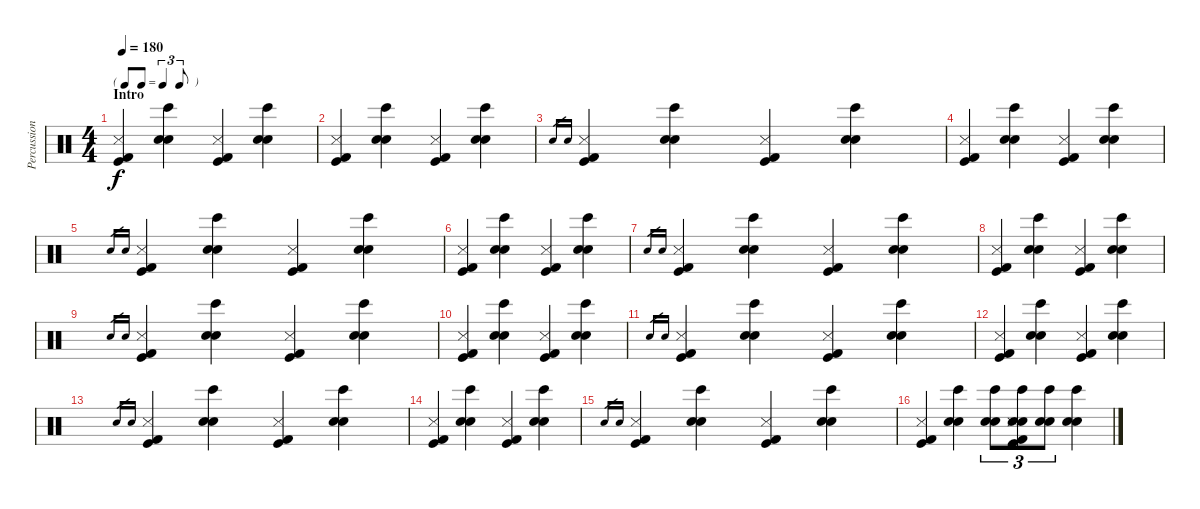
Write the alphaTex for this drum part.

\track ("Percussion" "Percussion") {instrument percussion}
\staff {score}
\articulation defaults
\ts (4 4)
\tf triplet8th
\section ("" "Intro")
\tempo 180
\clef neutral
\ks c
("Snare (side stick) 3" "Kick (hit)" "Kick (hit) 2").4{dy f} ("Bongo High (hit)" "Electric Snare (hit)" "Snare (hit) 2").4 ("Snare (side stick) 3" "Kick (hit)" "Kick (hit) 2").4 ("Bongo High (hit)" "Electric Snare (hit)" "Snare (hit) 2").4 |
("Snare (side stick) 3" "Kick (hit)" "Kick (hit) 2").4 ("Bongo High (hit)" "Electric Snare (hit)" "Snare (hit) 2").4 ("Snare (side stick) 3" "Kick (hit)" "Kick (hit) 2").4 ("Bongo High (hit)" "Electric Snare (hit)" "Snare (hit) 2").4 |
"Electric Snare (hit)".16{gr} "Snare (hit) 2".16{gr} ("Snare (side stick) 3" "Kick (hit)" "Kick (hit) 2").4 ("Bongo High (hit)" "Electric Snare (hit)" "Snare (hit) 2").4 ("Snare (side stick) 3" "Kick (hit)" "Kick (hit) 2").4 ("Bongo High (hit)" "Electric Snare (hit)" "Snare (hit) 2").4 |
("Snare (side stick) 3" "Kick (hit)" "Kick (hit) 2").4 ("Bongo High (hit)" "Electric Snare (hit)" "Snare (hit) 2").4 ("Snare (side stick) 3" "Kick (hit)" "Kick (hit) 2").4 ("Bongo High (hit)" "Electric Snare (hit)" "Snare (hit) 2").4 |
"Electric Snare (hit)".16{gr} "Snare (hit) 2".16{gr} ("Snare (side stick) 3" "Kick (hit)" "Kick (hit) 2").4 ("Bongo High (hit)" "Electric Snare (hit)" "Snare (hit) 2").4 ("Snare (side stick) 3" "Kick (hit)" "Kick (hit) 2").4 ("Bongo High (hit)" "Electric Snare (hit)" "Snare (hit) 2").4 |
("Snare (side stick) 3" "Kick (hit)" "Kick (hit) 2").4 ("Bongo High (hit)" "Electric Snare (hit)" "Snare (hit) 2").4 ("Snare (side stick) 3" "Kick (hit)" "Kick (hit) 2").4 ("Bongo High (hit)" "Electric Snare (hit)" "Snare (hit) 2").4 |
"Electric Snare (hit)".16{gr} "Snare (hit) 2".16{gr} ("Snare (side stick) 3" "Kick (hit)" "Kick (hit) 2").4 ("Bongo High (hit)" "Electric Snare (hit)" "Snare (hit) 2").4 ("Snare (side stick) 3" "Kick (hit)" "Kick (hit) 2").4 ("Bongo High (hit)" "Electric Snare (hit)" "Snare (hit) 2").4 |
("Snare (side stick) 3" "Kick (hit)" "Kick (hit) 2").4 ("Bongo High (hit)" "Electric Snare (hit)" "Snare (hit) 2").4 ("Snare (side stick) 3" "Kick (hit)" "Kick (hit) 2").4 ("Bongo High (hit)" "Electric Snare (hit)" "Snare (hit) 2").4 |
"Electric Snare (hit)".16{gr} "Snare (hit) 2".16{gr} ("Snare (side stick) 3" "Kick (hit)" "Kick (hit) 2").4 ("Bongo High (hit)" "Electric Snare (hit)" "Snare (hit) 2").4 ("Snare (side stick) 3" "Kick (hit)" "Kick (hit) 2").4 ("Bongo High (hit)" "Electric Snare (hit)" "Snare (hit) 2").4 |
("Snare (side stick) 3" "Kick (hit)" "Kick (hit) 2").4 ("Bongo High (hit)" "Electric Snare (hit)" "Snare (hit) 2").4 ("Snare (side stick) 3" "Kick (hit)" "Kick (hit) 2").4 ("Bongo High (hit)" "Electric Snare (hit)" "Snare (hit) 2").4 |
"Electric Snare (hit)".16{gr} "Snare (hit) 2".16{gr} ("Snare (side stick) 3" "Kick (hit)" "Kick (hit) 2").4 ("Bongo High (hit)" "Electric Snare (hit)" "Snare (hit) 2").4 ("Snare (side stick) 3" "Kick (hit)" "Kick (hit) 2").4 ("Bongo High (hit)" "Electric Snare (hit)" "Snare (hit) 2").4 |
("Snare (side stick) 3" "Kick (hit)" "Kick (hit) 2").4 ("Bongo High (hit)" "Electric Snare (hit)" "Snare (hit) 2").4 ("Snare (side stick) 3" "Kick (hit)" "Kick (hit) 2").4 ("Bongo High (hit)" "Electric Snare (hit)" "Snare (hit) 2").4 |
"Electric Snare (hit)".16{gr} "Snare (hit) 2".16{gr} ("Snare (side stick) 3" "Kick (hit)" "Kick (hit) 2").4 ("Bongo High (hit)" "Electric Snare (hit)" "Snare (hit) 2").4 ("Snare (side stick) 3" "Kick (hit)" "Kick (hit) 2").4 ("Bongo High (hit)" "Electric Snare (hit)" "Snare (hit) 2").4 |
("Snare (side stick) 3" "Kick (hit)" "Kick (hit) 2").4 ("Bongo High (hit)" "Electric Snare (hit)" "Snare (hit) 2").4 ("Snare (side stick) 3" "Kick (hit)" "Kick (hit) 2").4 ("Bongo High (hit)" "Electric Snare (hit)" "Snare (hit) 2").4 |
"Electric Snare (hit)".16{gr} "Snare (hit) 2".16{gr} ("Snare (side stick) 3" "Kick (hit)" "Kick (hit) 2").4 ("Bongo High (hit)" "Electric Snare (hit)" "Snare (hit) 2").4 ("Snare (side stick) 3" "Kick (hit)" "Kick (hit) 2").4 ("Bongo High (hit)" "Electric Snare (hit)" "Snare (hit) 2").4 |
("Snare (side stick) 3" "Kick (hit)" "Kick (hit) 2").4 ("Bongo High (hit)" "Electric Snare (hit)" "Snare (hit) 2").4 ("Bongo High (hit)" "Electric Snare (hit)" "Snare (hit) 2").8{tu (3 2)} ("Bongo High (hit)" "Electric Snare (hit)" "Snare (hit) 2" "Snare (side stick) 3" "Kick (hit)" "Kick (hit) 2").8{tu (3 2)} ("Bongo High (hit)" "Electric Snare (hit)" "Snare (hit) 2").8{tu (3 2)} ("Bongo High (hit)" "Electric Snare (hit)" "Snare (hit) 2").4
